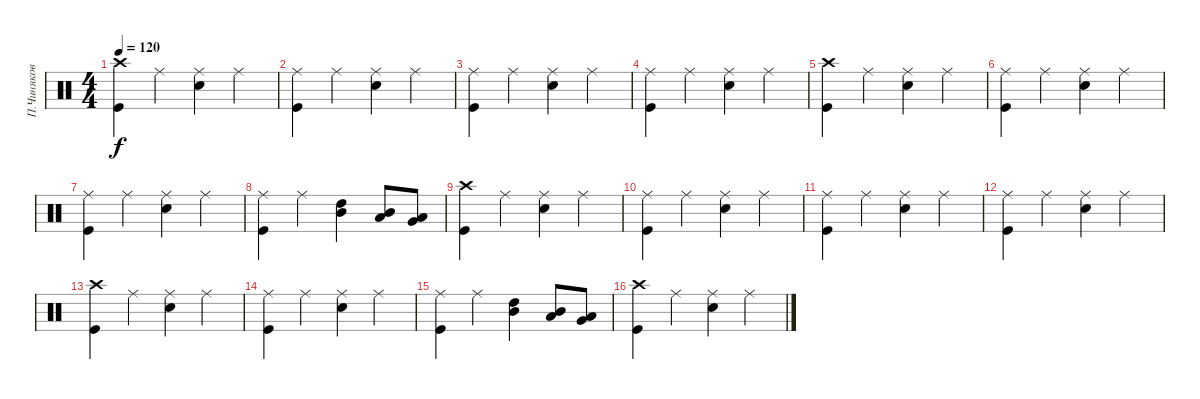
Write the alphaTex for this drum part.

\track ("П.Чиняков" "П.Чиняков") {instrument percussion}
\staff {score}
\articulation defaults
\ts (4 4)
\tempo 120
\clef neutral
\ks c
("Crash high (hit)" "Kick (hit)").4{dy f} "Ride (middle)".4 ("Ride (middle)" "Snare (hit) 2").4 "Ride (middle)".4 |
("Ride (middle)" "Kick (hit)").4 "Ride (middle)".4 ("Ride (middle)" "Snare (hit) 2").4 "Ride (middle)".4 |
("Ride (middle)" "Kick (hit)").4 "Ride (middle)".4 ("Ride (middle)" "Snare (hit) 2").4 "Ride (middle)".4 |
("Ride (middle)" "Kick (hit)").4 "Ride (middle)".4 ("Ride (middle)" "Snare (hit) 2").4 "Ride (middle)".4 |
("Crash high (hit)" "Kick (hit)").4 "Ride (middle)".4 ("Ride (middle)" "Snare (hit) 2").4 "Ride (middle)".4 |
("Ride (middle)" "Kick (hit)").4 "Ride (middle)".4 ("Ride (middle)" "Snare (hit) 2").4 "Ride (middle)".4 |
("Ride (middle)" "Kick (hit)").4 "Ride (middle)".4 ("Ride (middle)" "Snare (hit) 2").4 "Ride (middle)".4 |
("Ride (middle)" "Kick (hit)").4 "Ride (middle)".4 ("High Tom (hit)" "Mid Tom (hit)").4 ("Mid Tom (hit)" "Low Tom (hit)").8 ("Low Tom (hit)" "Very Low Tom (hit)").8 |
("Crash high (hit)" "Kick (hit)").4 "Ride (middle)".4 ("Ride (middle)" "Snare (hit) 2").4 "Ride (middle)".4 |
("Ride (middle)" "Kick (hit)").4 "Ride (middle)".4 ("Ride (middle)" "Snare (hit) 2").4 "Ride (middle)".4 |
("Ride (middle)" "Kick (hit)").4 "Ride (middle)".4 ("Ride (middle)" "Snare (hit) 2").4 "Ride (middle)".4 |
("Ride (middle)" "Kick (hit)").4 "Ride (middle)".4 ("Ride (middle)" "Snare (hit) 2").4 "Ride (middle)".4 |
("Crash high (hit)" "Kick (hit)").4 "Ride (middle)".4 ("Ride (middle)" "Snare (hit) 2").4 "Ride (middle)".4 |
("Ride (middle)" "Kick (hit)").4 "Ride (middle)".4 ("Ride (middle)" "Snare (hit) 2").4 "Ride (middle)".4 |
("Ride (middle)" "Kick (hit)").4 "Ride (middle)".4 ("High Tom (hit)" "Mid Tom (hit)").4 ("Mid Tom (hit)" "Low Tom (hit)").8 ("Low Tom (hit)" "Very Low Tom (hit)").8 |
("Crash high (hit)" "Kick (hit)").4 "Ride (middle)".4 ("Ride (middle)" "Snare (hit) 2").4 "Ride (middle)".4
